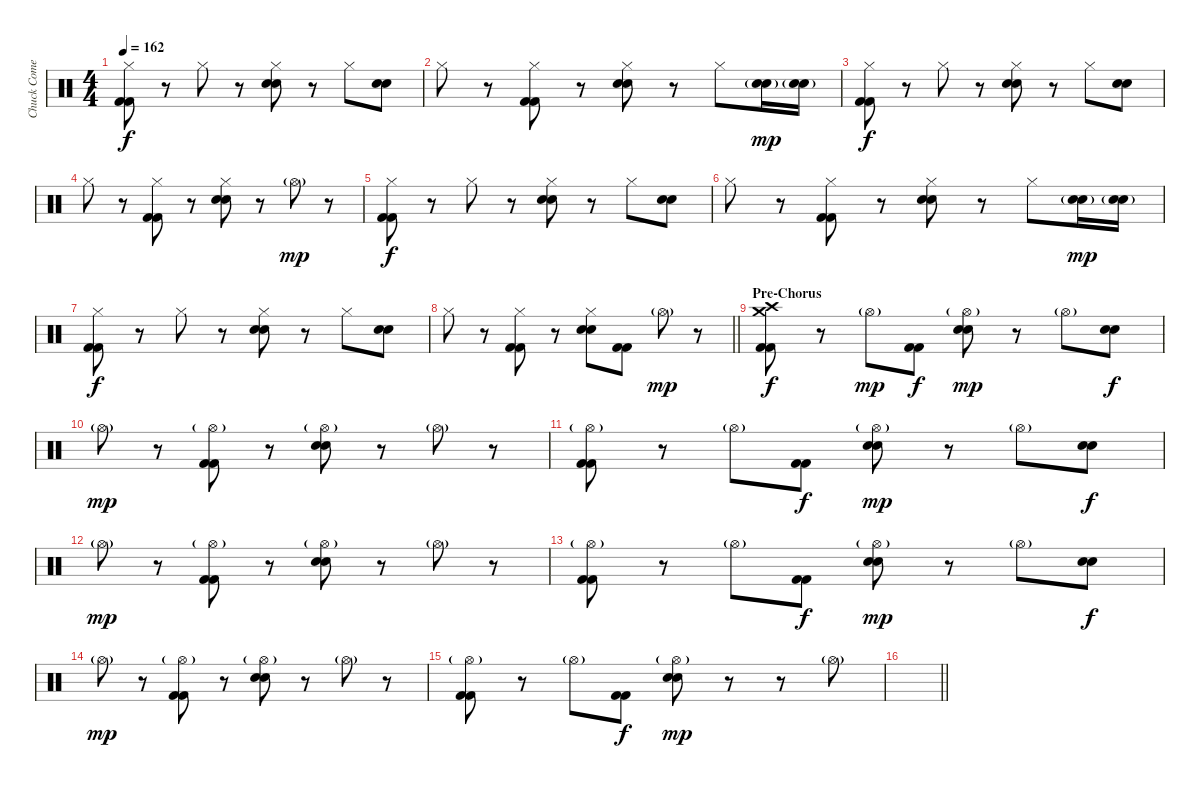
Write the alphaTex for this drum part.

\track ("Chuck Comeau" "Chuck Come") {instrument percussion}
\staff {score}
\articulation defaults
\ts (4 4)
\tempo 162
\clef neutral
\ks c
("Hi-Hat (closed)" "Kick (hit) 2" "Kick (hit) 2").8{dy f} r.8 "Hi-Hat (closed)".8 r.8 ("Hi-Hat (closed)" "Snare (hit) 2" "Snare (hit) 2").8 r.8 "Hi-Hat (closed)".8 ("Snare (hit) 2" "Snare (hit) 2").8 |
"Hi-Hat (closed)".8 r.8 ("Hi-Hat (closed)" "Kick (hit) 2" "Kick (hit) 2").8 r.8 ("Hi-Hat (closed)" "Snare (hit) 2" "Snare (hit) 2").8 r.8 "Hi-Hat (closed)".8 ("Snare (hit) 2"{g} "Snare (hit) 2"{g}).16{dy mp} ("Snare (hit) 2"{g} "Snare (hit) 2"{g}).16 |
("Hi-Hat (closed)" "Kick (hit) 2" "Kick (hit) 2").8{dy f} r.8 "Hi-Hat (closed)".8 r.8 ("Hi-Hat (closed)" "Snare (hit) 2" "Snare (hit) 2").8 r.8 "Hi-Hat (closed)".8 ("Snare (hit) 2" "Snare (hit) 2").8 |
"Hi-Hat (closed)".8 r.8 ("Hi-Hat (closed)" "Kick (hit) 2" "Kick (hit) 2").8 r.8 ("Hi-Hat (closed)" "Snare (hit) 2" "Snare (hit) 2").8 r.8 "Hi-Hat (open)"{g}.8{dy mp} r.8 |
("Hi-Hat (closed)" "Kick (hit) 2" "Kick (hit) 2").8{dy f} r.8 "Hi-Hat (closed)".8 r.8 ("Hi-Hat (closed)" "Snare (hit) 2" "Snare (hit) 2").8 r.8 "Hi-Hat (closed)".8 ("Snare (hit) 2" "Snare (hit) 2").8 |
"Hi-Hat (closed)".8 r.8 ("Hi-Hat (closed)" "Kick (hit) 2" "Kick (hit) 2").8 r.8 ("Hi-Hat (closed)" "Snare (hit) 2" "Snare (hit) 2").8 r.8 "Hi-Hat (closed)".8 ("Snare (hit) 2"{g} "Snare (hit) 2"{g}).16{dy mp} ("Snare (hit) 2"{g} "Snare (hit) 2"{g}).16 |
("Hi-Hat (closed)" "Kick (hit) 2" "Kick (hit) 2").8{dy f} r.8 "Hi-Hat (closed)".8 r.8 ("Hi-Hat (closed)" "Snare (hit) 2" "Snare (hit) 2").8 r.8 "Hi-Hat (closed)".8 ("Snare (hit) 2" "Snare (hit) 2").8 |
\barLineRight lightlight "Hi-Hat (closed)".8
r.8 ("Hi-Hat (closed)" "Kick (hit) 2" "Kick (hit) 2").8 r.8 ("Hi-Hat (closed)" "Snare (hit) 2" "Snare (hit) 2").8 ("Kick (hit) 2" "Kick (hit) 2").8 "Hi-Hat (open)"{g}.8{dy mp} r.8 |
\section ("" "Pre-Chorus")
("Crash medium (hit)" "Crash high (hit)" "Kick (hit) 2" "Kick (hit) 2").8{dy f} r.8 "Hi-Hat (open)"{g}.8{dy mp} ("Kick (hit) 2" "Kick (hit) 2").8{dy f} ("Hi-Hat (open)"{g} "Snare (hit) 2" "Snare (hit) 2").8{dy mp} r.8 "Hi-Hat (open)"{g}.8 ("Snare (hit) 2" "Snare (hit) 2").8{dy f} |
"Hi-Hat (open)"{g}.8{dy mp} r.8 ("Hi-Hat (open)"{g} "Kick (hit) 2" "Kick (hit) 2").8 r.8 ("Hi-Hat (open)"{g} "Snare (hit) 2" "Snare (hit) 2").8 r.8 "Hi-Hat (open)"{g}.8 r.8 |
("Hi-Hat (open)"{g} "Kick (hit) 2" "Kick (hit) 2").8 r.8 "Hi-Hat (open)"{g}.8 ("Kick (hit) 2" "Kick (hit) 2").8{dy f} ("Hi-Hat (open)"{g} "Snare (hit) 2" "Snare (hit) 2").8{dy mp} r.8 "Hi-Hat (open)"{g}.8 ("Snare (hit) 2" "Snare (hit) 2").8{dy f} |
"Hi-Hat (open)"{g}.8{dy mp} r.8 ("Hi-Hat (open)"{g} "Kick (hit) 2" "Kick (hit) 2").8 r.8 ("Hi-Hat (open)"{g} "Snare (hit) 2" "Snare (hit) 2").8 r.8 "Hi-Hat (open)"{g}.8 r.8 |
("Hi-Hat (open)"{g} "Kick (hit) 2" "Kick (hit) 2").8 r.8 "Hi-Hat (open)"{g}.8 ("Kick (hit) 2" "Kick (hit) 2").8{dy f} ("Hi-Hat (open)"{g} "Snare (hit) 2" "Snare (hit) 2").8{dy mp} r.8 "Hi-Hat (open)"{g}.8 ("Snare (hit) 2" "Snare (hit) 2").8{dy f} |
"Hi-Hat (open)"{g}.8{dy mp} r.8 ("Hi-Hat (open)"{g} "Kick (hit) 2" "Kick (hit) 2").8 r.8 ("Hi-Hat (open)"{g} "Snare (hit) 2" "Snare (hit) 2").8 r.8 "Hi-Hat (open)"{g}.8 r.8 |
("Hi-Hat (open)"{g} "Kick (hit) 2" "Kick (hit) 2").8 r.8 "Hi-Hat (open)"{g}.8 ("Kick (hit) 2" "Kick (hit) 2").8{dy f} ("Hi-Hat (open)"{g} "Snare (hit) 2" "Snare (hit) 2").8{dy mp} r.8 r.8 "Hi-Hat (open)"{g}.8 |
\barLineRight lightlight
